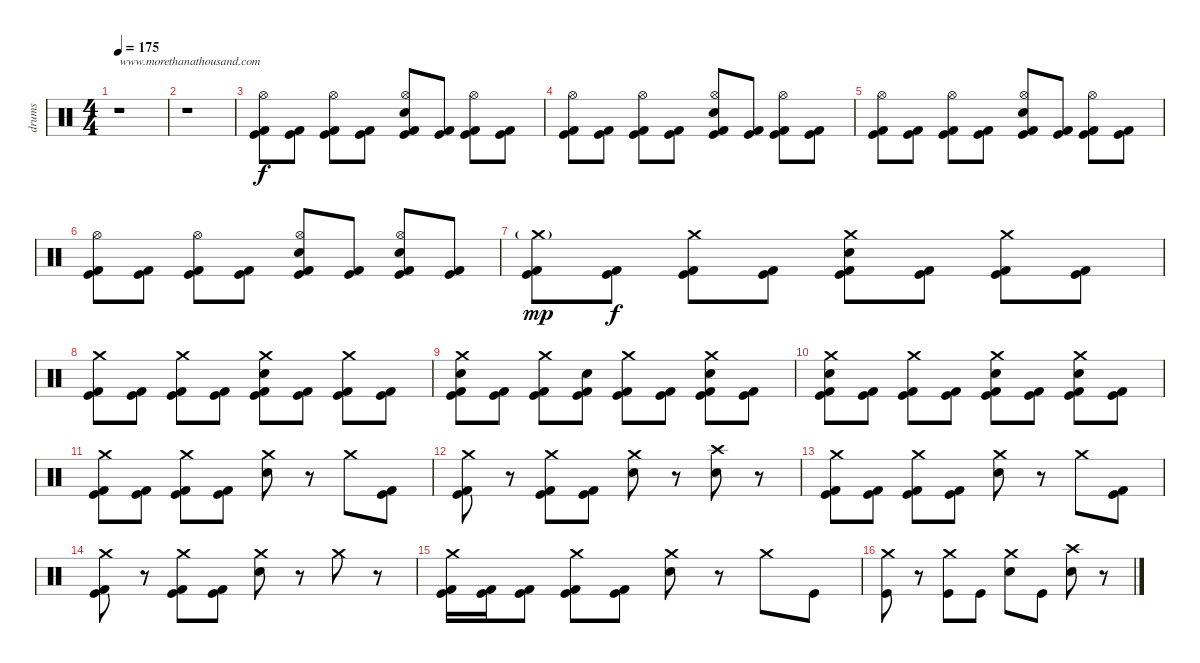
\track ("drums" "drums") {instrument percussion}
\staff {score}
\articulation defaults
\ts (4 4)
\tempo 175
\clef neutral
\ks c
r.1{txt "www.morethanathousand.com" dy f} |
r.1 |
("Kick (hit)" "Kick (hit) 2" "Hi-Hat (open)").8 ("Kick (hit)" "Kick (hit) 2").8 ("Kick (hit)" "Kick (hit) 2" "Hi-Hat (open)").8 ("Kick (hit)" "Kick (hit) 2").8 ("Kick (hit)" "Kick (hit) 2" "Electric Snare (hit)" "Hi-Hat (open)").8 ("Kick (hit)" "Kick (hit) 2").8 ("Kick (hit)" "Kick (hit) 2" "Hi-Hat (open)").8 ("Kick (hit)" "Kick (hit) 2").8 |
("Kick (hit)" "Kick (hit) 2" "Hi-Hat (open)").8 ("Kick (hit)" "Kick (hit) 2").8 ("Kick (hit)" "Kick (hit) 2" "Hi-Hat (open)").8 ("Kick (hit)" "Kick (hit) 2").8 ("Kick (hit)" "Kick (hit) 2" "Electric Snare (hit)" "Hi-Hat (open)").8 ("Kick (hit)" "Kick (hit) 2").8 ("Kick (hit)" "Kick (hit) 2" "Hi-Hat (open)").8 ("Kick (hit)" "Kick (hit) 2").8 |
("Kick (hit)" "Kick (hit) 2" "Hi-Hat (open)").8 ("Kick (hit)" "Kick (hit) 2").8 ("Kick (hit)" "Kick (hit) 2" "Hi-Hat (open)").8 ("Kick (hit)" "Kick (hit) 2").8 ("Kick (hit)" "Kick (hit) 2" "Electric Snare (hit)" "Hi-Hat (open)").8 ("Kick (hit)" "Kick (hit) 2").8 ("Kick (hit)" "Kick (hit) 2" "Hi-Hat (open)").8 ("Kick (hit)" "Kick (hit) 2").8 |
("Kick (hit)" "Kick (hit) 2" "Hi-Hat (open)").8 ("Kick (hit)" "Kick (hit) 2").8 ("Kick (hit)" "Kick (hit) 2" "Hi-Hat (open)").8 ("Kick (hit)" "Kick (hit) 2").8 ("Kick (hit)" "Kick (hit) 2" "Electric Snare (hit)" "Hi-Hat (open)").8 ("Kick (hit)" "Kick (hit) 2").8 ("Kick (hit)" "Kick (hit) 2" "Electric Snare (hit)" "Hi-Hat (open)").8 ("Kick (hit)" "Kick (hit) 2").8 |
("Kick (hit)" "Kick (hit) 2" "Crash medium (hit)"{g}).8{dy mp} ("Kick (hit)" "Kick (hit) 2").8{dy f} ("Kick (hit)" "Kick (hit) 2" "Crash medium (hit)").8 ("Kick (hit)" "Kick (hit) 2").8 ("Kick (hit)" "Kick (hit) 2" "Electric Snare (hit)" "Crash medium (hit)").8 ("Kick (hit)" "Kick (hit) 2").8 ("Kick (hit)" "Kick (hit) 2" "Crash medium (hit)").8 ("Kick (hit)" "Kick (hit) 2").8 |
("Kick (hit)" "Kick (hit) 2" "Crash medium (hit)").8 ("Kick (hit)" "Kick (hit) 2").8 ("Kick (hit)" "Kick (hit) 2" "Crash medium (hit)").8 ("Kick (hit)" "Kick (hit) 2").8 ("Kick (hit)" "Kick (hit) 2" "Electric Snare (hit)" "Crash medium (hit)").8 ("Kick (hit)" "Kick (hit) 2").8 ("Kick (hit)" "Kick (hit) 2" "Crash medium (hit)").8 ("Kick (hit)" "Kick (hit) 2").8 |
("Kick (hit)" "Kick (hit) 2" "Electric Snare (hit)" "Crash medium (hit)").8 ("Kick (hit)" "Kick (hit) 2").8 ("Kick (hit)" "Kick (hit) 2" "Crash medium (hit)").8 ("Kick (hit)" "Kick (hit) 2" "Electric Snare (hit)").8 ("Kick (hit)" "Kick (hit) 2" "Crash medium (hit)").8 ("Kick (hit)" "Kick (hit) 2").8 ("Kick (hit)" "Kick (hit) 2" "Electric Snare (hit)" "Crash medium (hit)").8 ("Kick (hit)" "Kick (hit) 2").8 |
("Kick (hit)" "Kick (hit) 2" "Electric Snare (hit)" "Crash medium (hit)").8 ("Kick (hit)" "Kick (hit) 2").8 ("Kick (hit)" "Kick (hit) 2" "Crash medium (hit)").8 ("Kick (hit)" "Kick (hit) 2").8 ("Kick (hit)" "Kick (hit) 2" "Electric Snare (hit)" "Crash medium (hit)").8 ("Kick (hit)" "Kick (hit) 2").8 ("Kick (hit)" "Kick (hit) 2" "Electric Snare (hit)" "Crash medium (hit)").8 ("Kick (hit)" "Kick (hit) 2").8 |
("Kick (hit)" "Kick (hit) 2" "Crash medium (hit)").8 ("Kick (hit)" "Kick (hit) 2").8 ("Kick (hit)" "Kick (hit) 2" "Crash medium (hit)").8 ("Kick (hit)" "Kick (hit) 2").8 ("Electric Snare (hit)" "Crash medium (hit)").8 r.8 "Crash medium (hit)".8 ("Kick (hit)" "Kick (hit) 2").8 |
("Kick (hit)" "Kick (hit) 2" "Crash medium (hit)").8 r.8 ("Kick (hit)" "Kick (hit) 2" "Crash medium (hit)").8 ("Kick (hit)" "Kick (hit) 2").8 ("Electric Snare (hit)" "Crash medium (hit)").8 r.8 ("Electric Snare (hit)" "Crash high (hit)").8 r.8 |
("Kick (hit)" "Kick (hit) 2" "Crash medium (hit)").8 ("Kick (hit)" "Kick (hit) 2").8 ("Kick (hit)" "Kick (hit) 2" "Crash medium (hit)").8 ("Kick (hit)" "Kick (hit) 2").8 ("Electric Snare (hit)" "Crash medium (hit)").8 r.8 "Crash medium (hit)".8 ("Kick (hit)" "Kick (hit) 2").8 |
("Kick (hit)" "Kick (hit) 2" "Crash medium (hit)").8 r.8 ("Kick (hit)" "Kick (hit) 2" "Crash medium (hit)").8 ("Kick (hit)" "Kick (hit) 2").8 ("Electric Snare (hit)" "Crash medium (hit)").8 r.8 "Crash medium (hit)".8 r.8 |
("Kick (hit)" "Kick (hit) 2" "Crash medium (hit)").16 ("Kick (hit)" "Kick (hit) 2").16 ("Kick (hit)" "Kick (hit) 2").8 ("Kick (hit)" "Kick (hit) 2" "Crash medium (hit)").8 ("Kick (hit)" "Kick (hit) 2").8 ("Electric Snare (hit)" "Crash medium (hit)").8 r.8 "Crash medium (hit)".8 "Kick (hit)".8 |
("Kick (hit)" "Crash medium (hit)").8 r.8 ("Kick (hit)" "Crash medium (hit)").8 "Kick (hit)".8 ("Electric Snare (hit)" "Crash medium (hit)").8 "Kick (hit)".8 ("Electric Snare (hit)" "Crash high (hit)").8 r.8
